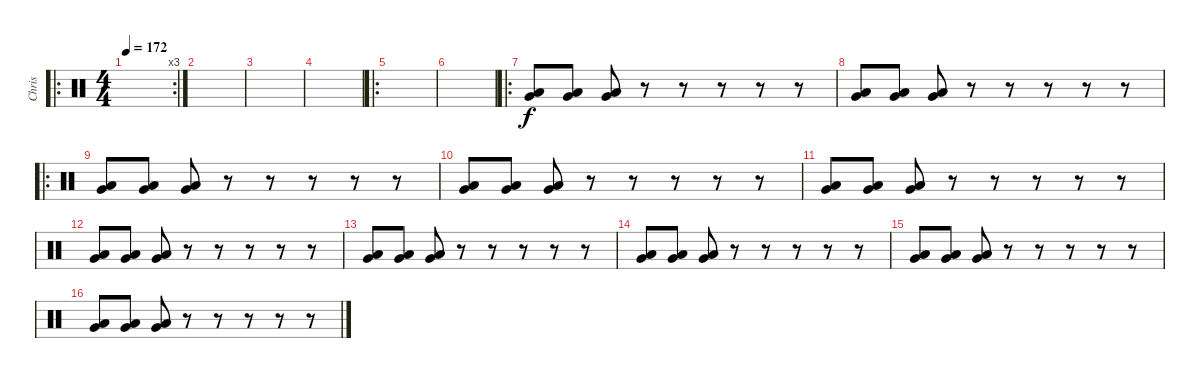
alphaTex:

\track ("Chris" "Chris") {instrument percussion}
\staff {score}
\articulation defaults
\ro
\rc 3
\ts (4 4)
\tempo 172
\clef neutral
\ks c
|
|
|
|
\ro
|
|
\ro
("Very Low Tom (hit)" "Low Floor Tom (hit)").8 ("Very Low Tom (hit)" "Low Floor Tom (hit)").8 ("Very Low Tom (hit)" "Low Floor Tom (hit)").8 r.8 r.8 r.8 r.8 r.8 |
("Very Low Tom (hit)" "Low Floor Tom (hit)").8 ("Very Low Tom (hit)" "Low Floor Tom (hit)").8 ("Very Low Tom (hit)" "Low Floor Tom (hit)").8 r.8 r.8 r.8 r.8 r.8 |
\ro
("Very Low Tom (hit)" "Low Floor Tom (hit)").8 ("Very Low Tom (hit)" "Low Floor Tom (hit)").8 ("Very Low Tom (hit)" "Low Floor Tom (hit)").8 r.8 r.8 r.8 r.8 r.8 |
("Very Low Tom (hit)" "Low Floor Tom (hit)").8 ("Very Low Tom (hit)" "Low Floor Tom (hit)").8 ("Very Low Tom (hit)" "Low Floor Tom (hit)").8 r.8 r.8 r.8 r.8 r.8 |
("Very Low Tom (hit)" "Low Floor Tom (hit)").8 ("Very Low Tom (hit)" "Low Floor Tom (hit)").8 ("Very Low Tom (hit)" "Low Floor Tom (hit)").8 r.8 r.8 r.8 r.8 r.8 |
("Very Low Tom (hit)" "Low Floor Tom (hit)").8 ("Very Low Tom (hit)" "Low Floor Tom (hit)").8 ("Very Low Tom (hit)" "Low Floor Tom (hit)").8 r.8 r.8 r.8 r.8 r.8 |
("Very Low Tom (hit)" "Low Floor Tom (hit)").8 ("Very Low Tom (hit)" "Low Floor Tom (hit)").8 ("Very Low Tom (hit)" "Low Floor Tom (hit)").8 r.8 r.8 r.8 r.8 r.8 |
("Very Low Tom (hit)" "Low Floor Tom (hit)").8 ("Very Low Tom (hit)" "Low Floor Tom (hit)").8 ("Very Low Tom (hit)" "Low Floor Tom (hit)").8 r.8 r.8 r.8 r.8 r.8 |
("Very Low Tom (hit)" "Low Floor Tom (hit)").8 ("Very Low Tom (hit)" "Low Floor Tom (hit)").8 ("Very Low Tom (hit)" "Low Floor Tom (hit)").8 r.8 r.8 r.8 r.8 r.8 |
("Very Low Tom (hit)" "Low Floor Tom (hit)").8 ("Very Low Tom (hit)" "Low Floor Tom (hit)").8 ("Very Low Tom (hit)" "Low Floor Tom (hit)").8 r.8 r.8 r.8 r.8 r.8
